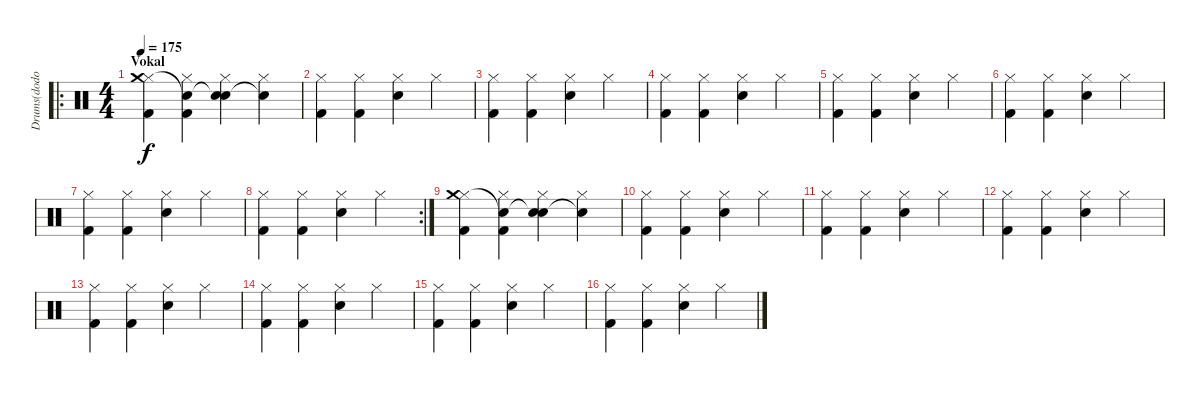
\track ("Drums(dodo)" "Drums(dodo") {instrument percussion}
\staff {score}
\articulation defaults
\ro
\ts (4 4)
\section ("" "Vokal")
\tempo 175
\clef neutral
\ks c
("Hi-Hat (closed)" "Crash medium (hit)" "Kick (hit) 2").4{dy f} ("Hi-Hat (closed)" "Snare (hit) 2"{t} "Kick (hit) 2").4 ("Hi-Hat (closed)" "Snare (hit)"{t} "Snare (hit) 2").4 ("Hi-Hat (closed)" "Snare (hit)"{t}).4 |
("Hi-Hat (closed)" "Kick (hit) 2").4 ("Hi-Hat (closed)" "Kick (hit) 2").4 ("Hi-Hat (closed)" "Snare (hit) 2").4 "Hi-Hat (closed)".4 |
("Hi-Hat (closed)" "Kick (hit) 2").4 ("Hi-Hat (closed)" "Kick (hit) 2").4 ("Hi-Hat (closed)" "Snare (hit) 2").4 "Hi-Hat (closed)".4 |
("Hi-Hat (closed)" "Kick (hit) 2").4 ("Hi-Hat (closed)" "Kick (hit) 2").4 ("Hi-Hat (closed)" "Snare (hit) 2").4 "Hi-Hat (closed)".4 |
("Hi-Hat (closed)" "Kick (hit) 2").4 ("Hi-Hat (closed)" "Kick (hit) 2").4 ("Hi-Hat (closed)" "Snare (hit) 2").4 "Hi-Hat (closed)".4 |
("Hi-Hat (closed)" "Kick (hit) 2").4 ("Hi-Hat (closed)" "Kick (hit) 2").4 ("Hi-Hat (closed)" "Snare (hit) 2").4 "Hi-Hat (closed)".4 |
("Hi-Hat (closed)" "Kick (hit) 2").4 ("Hi-Hat (closed)" "Kick (hit) 2").4 ("Hi-Hat (closed)" "Snare (hit) 2").4 "Hi-Hat (closed)".4 |
\rc 2
("Hi-Hat (closed)" "Kick (hit) 2").4 ("Hi-Hat (closed)" "Kick (hit) 2").4 ("Hi-Hat (closed)" "Snare (hit) 2").4 "Hi-Hat (closed)".4 |
("Hi-Hat (closed)" "Crash medium (hit)" "Kick (hit) 2").4 ("Hi-Hat (closed)" "Snare (hit) 2"{t} "Kick (hit) 2").4 ("Hi-Hat (closed)" "Snare (hit)"{t} "Snare (hit) 2").4 ("Hi-Hat (closed)" "Snare (hit)"{t}).4 |
("Hi-Hat (closed)" "Kick (hit) 2").4 ("Hi-Hat (closed)" "Kick (hit) 2").4 ("Hi-Hat (closed)" "Snare (hit) 2").4 "Hi-Hat (closed)".4 |
("Hi-Hat (closed)" "Kick (hit) 2").4 ("Hi-Hat (closed)" "Kick (hit) 2").4 ("Hi-Hat (closed)" "Snare (hit) 2").4 "Hi-Hat (closed)".4 |
("Hi-Hat (closed)" "Kick (hit) 2").4 ("Hi-Hat (closed)" "Kick (hit) 2").4 ("Hi-Hat (closed)" "Snare (hit) 2").4 "Hi-Hat (closed)".4 |
("Hi-Hat (closed)" "Kick (hit) 2").4 ("Hi-Hat (closed)" "Kick (hit) 2").4 ("Hi-Hat (closed)" "Snare (hit) 2").4 "Hi-Hat (closed)".4 |
("Hi-Hat (closed)" "Kick (hit) 2").4 ("Hi-Hat (closed)" "Kick (hit) 2").4 ("Hi-Hat (closed)" "Snare (hit) 2").4 "Hi-Hat (closed)".4 |
("Hi-Hat (closed)" "Kick (hit) 2").4 ("Hi-Hat (closed)" "Kick (hit) 2").4 ("Hi-Hat (closed)" "Snare (hit) 2").4 "Hi-Hat (closed)".4 |
("Hi-Hat (closed)" "Kick (hit) 2").4 ("Hi-Hat (closed)" "Kick (hit) 2").4 ("Hi-Hat (closed)" "Snare (hit) 2").4 "Hi-Hat (closed)".4
